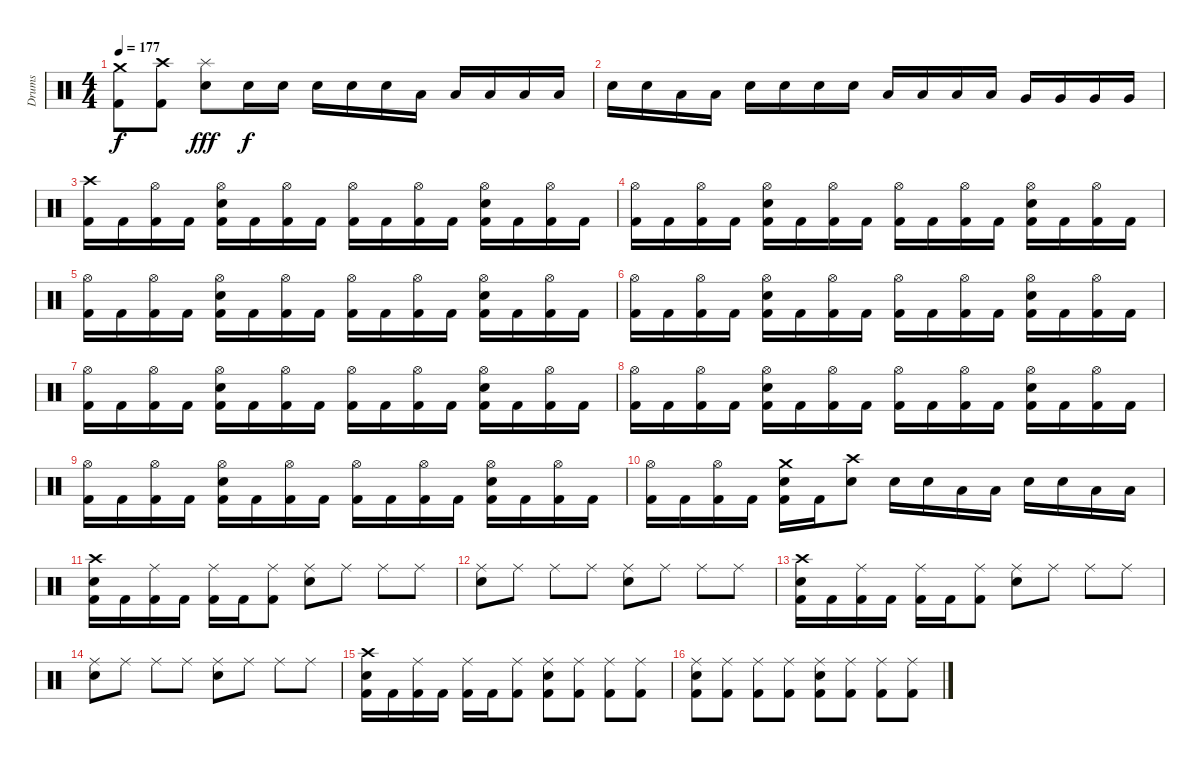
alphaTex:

\track ("Drums" "Drums") {instrument percussion}
\staff {score}
\articulation defaults
\ts (4 4)
\tempo 177
\clef neutral
\ks c
("Crash medium (hit)" "Kick (hit) 2").8{dy f} ("Crash high (hit)" "Kick (hit) 2").8 ("Splash (hit)" "Electric Snare (hit)").8{dy fff} "Electric Snare (hit)".16{dy f} "Electric Snare (hit)".16 "Electric Snare (hit)".16 "Electric Snare (hit)".16 "Electric Snare (hit)".16 "Low Tom (hit)".16 "Low Tom (hit)".16 "Low Tom (hit)".16 "Low Tom (hit)".16 "Low Tom (hit)".16 |
"Electric Snare (hit)".16 "Electric Snare (hit)".16 "Low Tom (hit)".16 "Low Tom (hit)".16 "Electric Snare (hit)".16 "Electric Snare (hit)".16 "Electric Snare (hit)".16 "Electric Snare (hit)".16 "Low Tom (hit)".16 "Low Tom (hit)".16 "Low Tom (hit)".16 "Low Tom (hit)".16 "Very Low Tom (hit)".16 "Very Low Tom (hit)".16 "Very Low Tom (hit)".16 "Very Low Tom (hit)".16 |
("Crash high (hit)" "Kick (hit) 2").16 "Kick (hit) 2".16 ("Hi-Hat (open)" "Kick (hit) 2").16 "Kick (hit) 2".16 ("Electric Snare (hit)" "Hi-Hat (open)" "Kick (hit) 2").16 "Kick (hit) 2".16 ("Hi-Hat (open)" "Kick (hit) 2").16 "Kick (hit) 2".16 ("Hi-Hat (open)" "Kick (hit) 2").16 "Kick (hit) 2".16 ("Hi-Hat (open)" "Kick (hit) 2").16 "Kick (hit) 2".16 ("Electric Snare (hit)" "Hi-Hat (open)" "Kick (hit) 2").16 "Kick (hit) 2".16 ("Hi-Hat (open)" "Kick (hit) 2").16 "Kick (hit) 2".16 |
("Hi-Hat (open)" "Kick (hit) 2").16 "Kick (hit) 2".16 ("Hi-Hat (open)" "Kick (hit) 2").16 "Kick (hit) 2".16 ("Electric Snare (hit)" "Hi-Hat (open)" "Kick (hit) 2").16 "Kick (hit) 2".16 ("Hi-Hat (open)" "Kick (hit) 2").16 "Kick (hit) 2".16 ("Hi-Hat (open)" "Kick (hit) 2").16 "Kick (hit) 2".16 ("Hi-Hat (open)" "Kick (hit) 2").16 "Kick (hit) 2".16 ("Electric Snare (hit)" "Hi-Hat (open)" "Kick (hit) 2").16 "Kick (hit) 2".16 ("Hi-Hat (open)" "Kick (hit) 2").16 "Kick (hit) 2".16 |
("Hi-Hat (open)" "Kick (hit) 2").16 "Kick (hit) 2".16 ("Hi-Hat (open)" "Kick (hit) 2").16 "Kick (hit) 2".16 ("Electric Snare (hit)" "Hi-Hat (open)" "Kick (hit) 2").16 "Kick (hit) 2".16 ("Hi-Hat (open)" "Kick (hit) 2").16 "Kick (hit) 2".16 ("Hi-Hat (open)" "Kick (hit) 2").16 "Kick (hit) 2".16 ("Hi-Hat (open)" "Kick (hit) 2").16 "Kick (hit) 2".16 ("Electric Snare (hit)" "Hi-Hat (open)" "Kick (hit) 2").16 "Kick (hit) 2".16 ("Hi-Hat (open)" "Kick (hit) 2").16 "Kick (hit) 2".16 |
("Hi-Hat (open)" "Kick (hit) 2").16 "Kick (hit) 2".16 ("Hi-Hat (open)" "Kick (hit) 2").16 "Kick (hit) 2".16 ("Electric Snare (hit)" "Hi-Hat (open)" "Kick (hit) 2").16 "Kick (hit) 2".16 ("Hi-Hat (open)" "Kick (hit) 2").16 "Kick (hit) 2".16 ("Hi-Hat (open)" "Kick (hit) 2").16 "Kick (hit) 2".16 ("Hi-Hat (open)" "Kick (hit) 2").16 "Kick (hit) 2".16 ("Electric Snare (hit)" "Hi-Hat (open)" "Kick (hit) 2").16 "Kick (hit) 2".16 ("Hi-Hat (open)" "Kick (hit) 2").16 "Kick (hit) 2".16 |
("Hi-Hat (open)" "Kick (hit) 2").16 "Kick (hit) 2".16 ("Hi-Hat (open)" "Kick (hit) 2").16 "Kick (hit) 2".16 ("Electric Snare (hit)" "Hi-Hat (open)" "Kick (hit) 2").16 "Kick (hit) 2".16 ("Hi-Hat (open)" "Kick (hit) 2").16 "Kick (hit) 2".16 ("Hi-Hat (open)" "Kick (hit) 2").16 "Kick (hit) 2".16 ("Hi-Hat (open)" "Kick (hit) 2").16 "Kick (hit) 2".16 ("Electric Snare (hit)" "Hi-Hat (open)" "Kick (hit) 2").16 "Kick (hit) 2".16 ("Hi-Hat (open)" "Kick (hit) 2").16 "Kick (hit) 2".16 |
("Hi-Hat (open)" "Kick (hit) 2").16 "Kick (hit) 2".16 ("Hi-Hat (open)" "Kick (hit) 2").16 "Kick (hit) 2".16 ("Electric Snare (hit)" "Hi-Hat (open)" "Kick (hit) 2").16 "Kick (hit) 2".16 ("Hi-Hat (open)" "Kick (hit) 2").16 "Kick (hit) 2".16 ("Hi-Hat (open)" "Kick (hit) 2").16 "Kick (hit) 2".16 ("Hi-Hat (open)" "Kick (hit) 2").16 "Kick (hit) 2".16 ("Electric Snare (hit)" "Hi-Hat (open)" "Kick (hit) 2").16 "Kick (hit) 2".16 ("Hi-Hat (open)" "Kick (hit) 2").16 "Kick (hit) 2".16 |
("Hi-Hat (open)" "Kick (hit) 2").16 "Kick (hit) 2".16 ("Hi-Hat (open)" "Kick (hit) 2").16 "Kick (hit) 2".16 ("Electric Snare (hit)" "Hi-Hat (open)" "Kick (hit) 2").16 "Kick (hit) 2".16 ("Hi-Hat (open)" "Kick (hit) 2").16 "Kick (hit) 2".16 ("Hi-Hat (open)" "Kick (hit) 2").16 "Kick (hit) 2".16 ("Hi-Hat (open)" "Kick (hit) 2").16 "Kick (hit) 2".16 ("Electric Snare (hit)" "Hi-Hat (open)" "Kick (hit) 2").16 "Kick (hit) 2".16 ("Hi-Hat (open)" "Kick (hit) 2").16 "Kick (hit) 2".16 |
("Hi-Hat (open)" "Kick (hit) 2").16 "Kick (hit) 2".16 ("Hi-Hat (open)" "Kick (hit) 2").16 "Kick (hit) 2".16 ("Electric Snare (hit)" "Crash medium (hit)" "Kick (hit) 2").16 "Kick (hit) 2".16 ("Crash high (hit)" "Electric Snare (hit)").8 "Electric Snare (hit)".16 "Electric Snare (hit)".16 "Low Tom (hit)".16 "Low Tom (hit)".16 "Electric Snare (hit)".16 "Electric Snare (hit)".16 "Low Tom (hit)".16 "Low Tom (hit)".16 |
("Crash high (hit)" "Electric Snare (hit)" "Kick (hit) 2").16 "Kick (hit) 2".16 ("Ride (middle)" "Kick (hit) 2").16 "Kick (hit) 2".16 ("Ride (middle)" "Kick (hit) 2").16 "Kick (hit) 2".16 ("Ride (middle)" "Kick (hit) 2").8 ("Electric Snare (hit)" "Ride (middle)").8 "Ride (middle)".8 "Ride (middle)".8 "Ride (middle)".8 |
("Ride (middle)" "Electric Snare (hit)").8 "Ride (middle)".8 "Ride (middle)".8 "Ride (middle)".8 ("Electric Snare (hit)" "Ride (middle)").8 "Ride (middle)".8 "Ride (middle)".8 "Ride (middle)".8 |
("Crash high (hit)" "Electric Snare (hit)" "Kick (hit) 2").16 "Kick (hit) 2".16 ("Ride (middle)" "Kick (hit) 2").16 "Kick (hit) 2".16 ("Ride (middle)" "Kick (hit) 2").16 "Kick (hit) 2".16 ("Ride (middle)" "Kick (hit) 2").8 ("Electric Snare (hit)" "Ride (middle)").8 "Ride (middle)".8 "Ride (middle)".8 "Ride (middle)".8 |
("Ride (middle)" "Electric Snare (hit)").8 "Ride (middle)".8 "Ride (middle)".8 "Ride (middle)".8 ("Electric Snare (hit)" "Ride (middle)").8 "Ride (middle)".8 "Ride (middle)".8 "Ride (middle)".8 |
("Crash high (hit)" "Electric Snare (hit)" "Kick (hit) 2").16 "Kick (hit) 2".16 ("Ride (middle)" "Kick (hit) 2").16 "Kick (hit) 2".16 ("Ride (middle)" "Kick (hit) 2").16 "Kick (hit) 2".16 ("Ride (middle)" "Kick (hit) 2").8 ("Electric Snare (hit)" "Ride (middle)" "Kick (hit) 2").8 ("Ride (middle)" "Kick (hit) 2").8 ("Ride (middle)" "Kick (hit) 2").8 ("Ride (middle)" "Kick (hit) 2").8 |
("Ride (middle)" "Electric Snare (hit)" "Kick (hit) 2").8 ("Ride (middle)" "Kick (hit) 2").8 ("Ride (middle)" "Kick (hit) 2").8 ("Ride (middle)" "Kick (hit) 2").8 ("Electric Snare (hit)" "Ride (middle)" "Kick (hit) 2").8 ("Ride (middle)" "Kick (hit) 2").8 ("Ride (middle)" "Kick (hit) 2").8 ("Ride (middle)" "Kick (hit) 2").8
